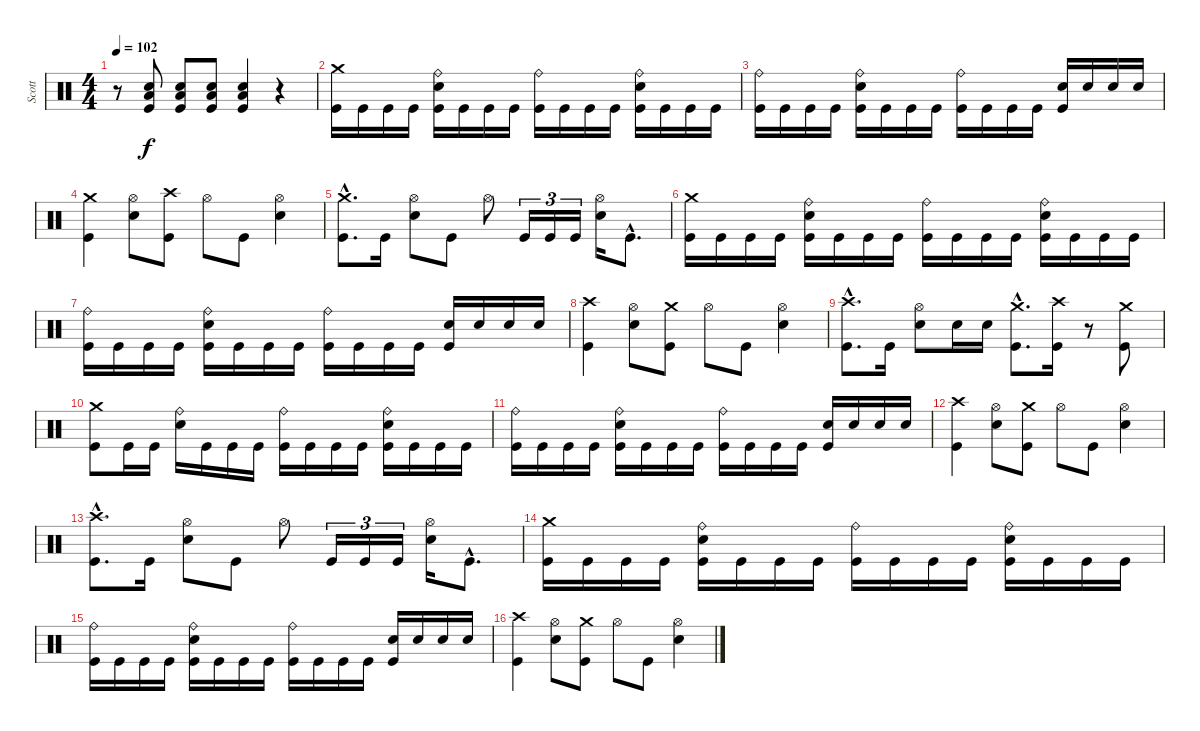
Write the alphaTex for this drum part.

\track ("Scott" "Scott") {instrument percussion}
\staff {score}
\articulation defaults
\ts (4 4)
\tempo 102
\clef neutral
\ks c
r.8{dy f} ("Kick (hit)" "Snare (hit) 2" "Low Floor Tom (hit)").8 ("Kick (hit)" "Snare (hit) 2" "Low Floor Tom (hit)").8 ("Kick (hit)" "Snare (hit) 2" "Low Floor Tom (hit)").8 ("Kick (hit)" "Snare (hit) 2" "Low Floor Tom (hit)").4 r.4 |
("Kick (hit)" "Crash medium (hit)").16 "Kick (hit)".16 "Kick (hit)".16 "Kick (hit)".16 ("Kick (hit)" "Snare (hit) 2" "Ride (bell)").16 "Kick (hit)".16 "Kick (hit)".16 "Kick (hit)".16 ("Kick (hit)" "Ride (bell)").16 "Kick (hit)".16 "Kick (hit)".16 "Kick (hit)".16 ("Kick (hit)" "Snare (hit) 2" "Ride (bell)").16 "Kick (hit)".16 "Kick (hit)".16 "Kick (hit)".16 |
("Kick (hit)" "Ride (bell)").16 "Kick (hit)".16 "Kick (hit)".16 "Kick (hit)".16 ("Kick (hit)" "Snare (hit) 2" "Ride (bell)").16 "Kick (hit)".16 "Kick (hit)".16 "Kick (hit)".16 ("Kick (hit)" "Ride (bell)").16 "Kick (hit)".16 "Kick (hit)".16 "Kick (hit)".16 ("Kick (hit)" "Snare (hit) 2").16 "Snare (hit) 2".16 "Snare (hit) 2".16 "Snare (hit) 2".16 |
("Kick (hit)" "Crash medium (hit)").4 ("Snare (hit) 2" "Hi-Hat (open)").8 ("Kick (hit)" "Crash high (hit)").8 "Hi-Hat (open)".8 "Kick (hit)".8 ("Snare (hit) 2" "Hi-Hat (open)").4 |
("Kick (hit)"{hac} "Crash medium (hit)"{hac}).8{d} "Kick (hit)".16 ("Snare (hit) 2" "Hi-Hat (open)").8 "Kick (hit)".8 "Hi-Hat (open)".8 "Kick (hit)".16{tu (3 2)} "Kick (hit)".16{tu (3 2)} "Kick (hit)".16{tu (3 2)} ("Snare (hit) 2" "Hi-Hat (open)").16 "Kick (hit)"{hac}.8{d} |
("Kick (hit)" "Crash medium (hit)").16 "Kick (hit)".16 "Kick (hit)".16 "Kick (hit)".16 ("Kick (hit)" "Snare (hit) 2" "Ride (bell)").16 "Kick (hit)".16 "Kick (hit)".16 "Kick (hit)".16 ("Kick (hit)" "Ride (bell)").16 "Kick (hit)".16 "Kick (hit)".16 "Kick (hit)".16 ("Kick (hit)" "Snare (hit) 2" "Ride (bell)").16 "Kick (hit)".16 "Kick (hit)".16 "Kick (hit)".16 |
("Kick (hit)" "Ride (bell)").16 "Kick (hit)".16 "Kick (hit)".16 "Kick (hit)".16 ("Kick (hit)" "Snare (hit) 2" "Ride (bell)").16 "Kick (hit)".16 "Kick (hit)".16 "Kick (hit)".16 ("Kick (hit)" "Ride (bell)").16 "Kick (hit)".16 "Kick (hit)".16 "Kick (hit)".16 ("Kick (hit)" "Snare (hit) 2").16 "Snare (hit) 2".16 "Snare (hit) 2".16 "Snare (hit) 2".16 |
("Kick (hit)" "Crash high (hit)").4 ("Snare (hit) 2" "Hi-Hat (open)").8 ("Kick (hit)" "Crash medium (hit)").8 "Hi-Hat (open)".8 "Kick (hit)".8 ("Snare (hit) 2" "Hi-Hat (open)").4 |
("Kick (hit)"{hac} "Crash high (hit)"{hac}).8{d} "Kick (hit)".16 ("Snare (hit) 2" "Hi-Hat (open)").8 "Snare (hit) 2".16 "Snare (hit) 2".16 ("Kick (hit)"{hac} "Crash medium (hit)"{hac}).8{d} ("Kick (hit)" "Crash high (hit)").16 r.8 ("Kick (hit)" "Crash medium (hit)").8 |
("Kick (hit)" "Crash medium (hit)").8 "Kick (hit)".16 "Kick (hit)".16 ("Snare (hit) 2" "Ride (bell)").16 "Kick (hit)".16 "Kick (hit)".16 "Kick (hit)".16 ("Kick (hit)" "Ride (bell)").16 "Kick (hit)".16 "Kick (hit)".16 "Kick (hit)".16 ("Kick (hit)" "Snare (hit) 2" "Ride (bell)").16 "Kick (hit)".16 "Kick (hit)".16 "Kick (hit)".16 |
("Kick (hit)" "Ride (bell)").16 "Kick (hit)".16 "Kick (hit)".16 "Kick (hit)".16 ("Kick (hit)" "Snare (hit) 2" "Ride (bell)").16 "Kick (hit)".16 "Kick (hit)".16 "Kick (hit)".16 ("Kick (hit)" "Ride (bell)").16 "Kick (hit)".16 "Kick (hit)".16 "Kick (hit)".16 ("Kick (hit)" "Snare (hit) 2").16 "Snare (hit) 2".16 "Snare (hit) 2".16 "Snare (hit) 2".16 |
("Kick (hit)" "Crash high (hit)").4 ("Snare (hit) 2" "Hi-Hat (open)").8 ("Kick (hit)" "Crash medium (hit)").8 "Hi-Hat (open)".8 "Kick (hit)".8 ("Snare (hit) 2" "Hi-Hat (open)").4 |
("Kick (hit)"{hac} "Crash high (hit)"{hac}).8{d} "Kick (hit)".16 ("Snare (hit) 2" "Hi-Hat (open)").8 "Kick (hit)".8 "Hi-Hat (open)".8 "Kick (hit)".16{tu (3 2)} "Kick (hit)".16{tu (3 2)} "Kick (hit)".16{tu (3 2)} ("Snare (hit) 2" "Hi-Hat (open)").16 "Kick (hit)"{hac}.8{d} |
("Kick (hit)" "Crash medium (hit)").16 "Kick (hit)".16 "Kick (hit)".16 "Kick (hit)".16 ("Kick (hit)" "Snare (hit) 2" "Ride (bell)").16 "Kick (hit)".16 "Kick (hit)".16 "Kick (hit)".16 ("Kick (hit)" "Ride (bell)").16 "Kick (hit)".16 "Kick (hit)".16 "Kick (hit)".16 ("Kick (hit)" "Snare (hit) 2" "Ride (bell)").16 "Kick (hit)".16 "Kick (hit)".16 "Kick (hit)".16 |
("Kick (hit)" "Ride (bell)").16 "Kick (hit)".16 "Kick (hit)".16 "Kick (hit)".16 ("Kick (hit)" "Snare (hit) 2" "Ride (bell)").16 "Kick (hit)".16 "Kick (hit)".16 "Kick (hit)".16 ("Kick (hit)" "Ride (bell)").16 "Kick (hit)".16 "Kick (hit)".16 "Kick (hit)".16 ("Kick (hit)" "Snare (hit) 2").16 "Snare (hit) 2".16 "Snare (hit) 2".16 "Snare (hit) 2".16 |
("Kick (hit)" "Crash high (hit)").4 ("Snare (hit) 2" "Hi-Hat (open)").8 ("Kick (hit)" "Crash medium (hit)").8 "Hi-Hat (open)".8 "Kick (hit)".8 ("Snare (hit) 2" "Hi-Hat (open)").4
